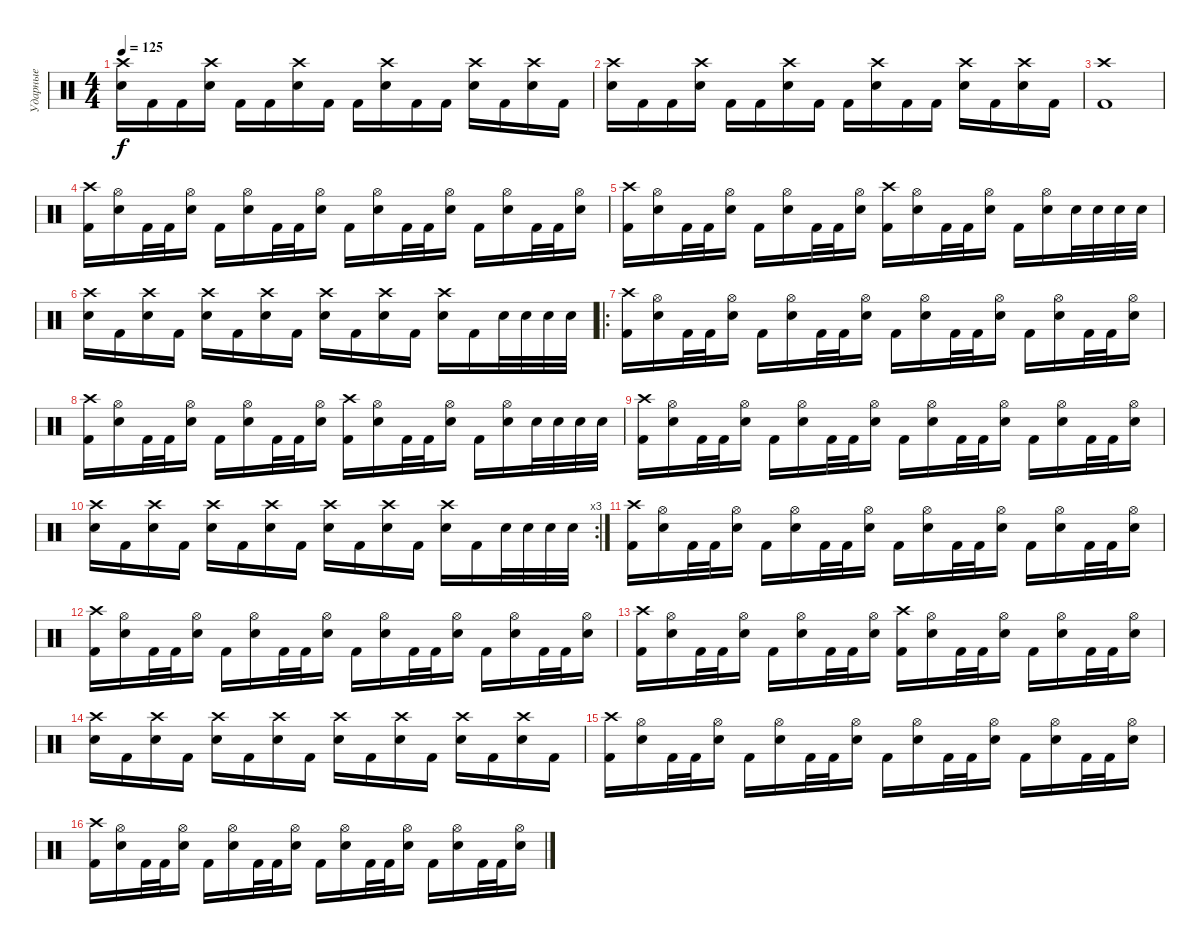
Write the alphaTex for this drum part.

\track ("Ударные" "Ударные") {instrument percussion}
\staff {score}
\articulation defaults
\ts (4 4)
\tempo 125
\clef neutral
\ks c
("Electric Snare (hit)" "Crash high (hit)").16{dy f} "Kick (hit) 2".16 "Kick (hit) 2".16 ("Electric Snare (hit)" "Crash high (hit)").16 "Kick (hit) 2".16 "Kick (hit) 2".16 ("Electric Snare (hit)" "Crash high (hit)").16 "Kick (hit) 2".16 "Kick (hit) 2".16 ("Electric Snare (hit)" "Crash high (hit)").16 "Kick (hit) 2".16 "Kick (hit) 2".16 ("Electric Snare (hit)" "Crash high (hit)").16 "Kick (hit) 2".16 ("Electric Snare (hit)" "Crash high (hit)").16 "Kick (hit) 2".16 |
("Electric Snare (hit)" "Crash high (hit)").16 "Kick (hit) 2".16 "Kick (hit) 2".16 ("Electric Snare (hit)" "Crash high (hit)").16 "Kick (hit) 2".16 "Kick (hit) 2".16 ("Electric Snare (hit)" "Crash high (hit)").16 "Kick (hit) 2".16 "Kick (hit) 2".16 ("Electric Snare (hit)" "Crash high (hit)").16 "Kick (hit) 2".16 "Kick (hit) 2".16 ("Electric Snare (hit)" "Crash high (hit)").16 "Kick (hit) 2".16 ("Electric Snare (hit)" "Crash high (hit)").16 "Kick (hit) 2".16 |
("Kick (hit) 2" "Crash high (hit)").1 |
("Kick (hit) 2" "Crash high (hit)").16 ("Electric Snare (hit)" "Hi-Hat (open)").16 "Kick (hit) 2".32 "Kick (hit) 2".32 ("Electric Snare (hit)" "Hi-Hat (open)").16 "Kick (hit) 2".16 ("Electric Snare (hit)" "Hi-Hat (open)").16 "Kick (hit) 2".32 "Kick (hit) 2".32 ("Electric Snare (hit)" "Hi-Hat (open)").16 "Kick (hit) 2".16 ("Electric Snare (hit)" "Hi-Hat (open)").16 "Kick (hit) 2".32 "Kick (hit) 2".32 ("Electric Snare (hit)" "Hi-Hat (open)").16 "Kick (hit) 2".16 ("Electric Snare (hit)" "Hi-Hat (open)").16 "Kick (hit) 2".32 "Kick (hit) 2".32 ("Electric Snare (hit)" "Hi-Hat (open)").16 |
("Kick (hit) 2" "Crash high (hit)").16 ("Electric Snare (hit)" "Hi-Hat (open)").16 "Kick (hit) 2".32 "Kick (hit) 2".32 ("Electric Snare (hit)" "Hi-Hat (open)").16 "Kick (hit) 2".16 ("Electric Snare (hit)" "Hi-Hat (open)").16 "Kick (hit) 2".32 "Kick (hit) 2".32 ("Electric Snare (hit)" "Hi-Hat (open)").16 ("Kick (hit) 2" "Crash high (hit)").16 ("Electric Snare (hit)" "Hi-Hat (open)").16 "Kick (hit) 2".32 "Kick (hit) 2".32 ("Electric Snare (hit)" "Hi-Hat (open)").16 "Kick (hit) 2".16 ("Electric Snare (hit)" "Hi-Hat (open)").16 "Electric Snare (hit)".32 "Electric Snare (hit)".32 "Electric Snare (hit)".32 "Electric Snare (hit)".32 |
("Electric Snare (hit)" "Crash high (hit)").16 "Kick (hit) 2".16 ("Electric Snare (hit)" "Crash high (hit)").16 "Kick (hit) 2".16 ("Electric Snare (hit)" "Crash high (hit)").16 "Kick (hit) 2".16 ("Electric Snare (hit)" "Crash high (hit)").16 "Kick (hit) 2".16 ("Electric Snare (hit)" "Crash high (hit)").16 "Kick (hit) 2".16 ("Electric Snare (hit)" "Crash high (hit)").16 "Kick (hit) 2".16 ("Electric Snare (hit)" "Crash high (hit)").16 "Kick (hit) 2".16 "Electric Snare (hit)".32 "Electric Snare (hit)".32 "Electric Snare (hit)".32 "Electric Snare (hit)".32 |
\ro
("Kick (hit) 2" "Crash high (hit)").16 ("Electric Snare (hit)" "Hi-Hat (open)").16 "Kick (hit) 2".32 "Kick (hit) 2".32 ("Electric Snare (hit)" "Hi-Hat (open)").16 "Kick (hit) 2".16 ("Electric Snare (hit)" "Hi-Hat (open)").16 "Kick (hit) 2".32 "Kick (hit) 2".32 ("Electric Snare (hit)" "Hi-Hat (open)").16 "Kick (hit) 2".16 ("Electric Snare (hit)" "Hi-Hat (open)").16 "Kick (hit) 2".32 "Kick (hit) 2".32 ("Electric Snare (hit)" "Hi-Hat (open)").16 "Kick (hit) 2".16 ("Electric Snare (hit)" "Hi-Hat (open)").16 "Kick (hit) 2".32 "Kick (hit) 2".32 ("Electric Snare (hit)" "Hi-Hat (open)").16 |
("Kick (hit) 2" "Crash high (hit)").16 ("Electric Snare (hit)" "Hi-Hat (open)").16 "Kick (hit) 2".32 "Kick (hit) 2".32 ("Electric Snare (hit)" "Hi-Hat (open)").16 "Kick (hit) 2".16 ("Electric Snare (hit)" "Hi-Hat (open)").16 "Kick (hit) 2".32 "Kick (hit) 2".32 ("Electric Snare (hit)" "Hi-Hat (open)").16 ("Kick (hit) 2" "Crash high (hit)").16 ("Electric Snare (hit)" "Hi-Hat (open)").16 "Kick (hit) 2".32 "Kick (hit) 2".32 ("Electric Snare (hit)" "Hi-Hat (open)").16 "Kick (hit) 2".16 ("Electric Snare (hit)" "Hi-Hat (open)").16 "Electric Snare (hit)".32 "Electric Snare (hit)".32 "Electric Snare (hit)".32 "Electric Snare (hit)".32 |
("Kick (hit) 2" "Crash high (hit)").16 ("Electric Snare (hit)" "Hi-Hat (open)").16 "Kick (hit) 2".32 "Kick (hit) 2".32 ("Electric Snare (hit)" "Hi-Hat (open)").16 "Kick (hit) 2".16 ("Electric Snare (hit)" "Hi-Hat (open)").16 "Kick (hit) 2".32 "Kick (hit) 2".32 ("Electric Snare (hit)" "Hi-Hat (open)").16 "Kick (hit) 2".16 ("Electric Snare (hit)" "Hi-Hat (open)").16 "Kick (hit) 2".32 "Kick (hit) 2".32 ("Electric Snare (hit)" "Hi-Hat (open)").16 "Kick (hit) 2".16 ("Electric Snare (hit)" "Hi-Hat (open)").16 "Kick (hit) 2".32 "Kick (hit) 2".32 ("Electric Snare (hit)" "Hi-Hat (open)").16 |
\rc 3
("Electric Snare (hit)" "Crash high (hit)").16 "Kick (hit) 2".16 ("Electric Snare (hit)" "Crash high (hit)").16 "Kick (hit) 2".16 ("Electric Snare (hit)" "Crash high (hit)").16 "Kick (hit) 2".16 ("Electric Snare (hit)" "Crash high (hit)").16 "Kick (hit) 2".16 ("Electric Snare (hit)" "Crash high (hit)").16 "Kick (hit) 2".16 ("Electric Snare (hit)" "Crash high (hit)").16 "Kick (hit) 2".16 ("Electric Snare (hit)" "Crash high (hit)").16 "Kick (hit) 2".16 "Electric Snare (hit)".32 "Electric Snare (hit)".32 "Electric Snare (hit)".32 "Electric Snare (hit)".32 |
("Kick (hit) 2" "Crash high (hit)").16 ("Electric Snare (hit)" "Hi-Hat (open)").16 "Kick (hit) 2".32 "Kick (hit) 2".32 ("Electric Snare (hit)" "Hi-Hat (open)").16 "Kick (hit) 2".16 ("Electric Snare (hit)" "Hi-Hat (open)").16 "Kick (hit) 2".32 "Kick (hit) 2".32 ("Electric Snare (hit)" "Hi-Hat (open)").16 "Kick (hit) 2".16 ("Electric Snare (hit)" "Hi-Hat (open)").16 "Kick (hit) 2".32 "Kick (hit) 2".32 ("Electric Snare (hit)" "Hi-Hat (open)").16 "Kick (hit) 2".16 ("Electric Snare (hit)" "Hi-Hat (open)").16 "Kick (hit) 2".32 "Kick (hit) 2".32 ("Electric Snare (hit)" "Hi-Hat (open)").16 |
("Kick (hit) 2" "Crash high (hit)").16 ("Electric Snare (hit)" "Hi-Hat (open)").16 "Kick (hit) 2".32 "Kick (hit) 2".32 ("Electric Snare (hit)" "Hi-Hat (open)").16 "Kick (hit) 2".16 ("Electric Snare (hit)" "Hi-Hat (open)").16 "Kick (hit) 2".32 "Kick (hit) 2".32 ("Electric Snare (hit)" "Hi-Hat (open)").16 "Kick (hit) 2".16 ("Electric Snare (hit)" "Hi-Hat (open)").16 "Kick (hit) 2".32 "Kick (hit) 2".32 ("Electric Snare (hit)" "Hi-Hat (open)").16 "Kick (hit) 2".16 ("Electric Snare (hit)" "Hi-Hat (open)").16 "Kick (hit) 2".32 "Kick (hit) 2".32 ("Electric Snare (hit)" "Hi-Hat (open)").16 |
("Kick (hit) 2" "Crash high (hit)").16 ("Electric Snare (hit)" "Hi-Hat (open)").16 "Kick (hit) 2".32 "Kick (hit) 2".32 ("Electric Snare (hit)" "Hi-Hat (open)").16 "Kick (hit) 2".16 ("Electric Snare (hit)" "Hi-Hat (open)").16 "Kick (hit) 2".32 "Kick (hit) 2".32 ("Electric Snare (hit)" "Hi-Hat (open)").16 ("Kick (hit) 2" "Crash high (hit)").16 ("Electric Snare (hit)" "Hi-Hat (open)").16 "Kick (hit) 2".32 "Kick (hit) 2".32 ("Electric Snare (hit)" "Hi-Hat (open)").16 "Kick (hit) 2".16 ("Electric Snare (hit)" "Hi-Hat (open)").16 "Kick (hit) 2".32 "Kick (hit) 2".32 ("Electric Snare (hit)" "Hi-Hat (open)").16 |
("Electric Snare (hit)" "Crash high (hit)").16 "Kick (hit) 2".16 ("Electric Snare (hit)" "Crash high (hit)").16 "Kick (hit) 2".16 ("Electric Snare (hit)" "Crash high (hit)").16 "Kick (hit) 2".16 ("Electric Snare (hit)" "Crash high (hit)").16 "Kick (hit) 2".16 ("Electric Snare (hit)" "Crash high (hit)").16 "Kick (hit) 2".16 ("Electric Snare (hit)" "Crash high (hit)").16 "Kick (hit) 2".16 ("Electric Snare (hit)" "Crash high (hit)").16 "Kick (hit) 2".16 ("Electric Snare (hit)" "Crash high (hit)").16 "Kick (hit) 2".16 |
("Kick (hit) 2" "Crash high (hit)").16 ("Electric Snare (hit)" "Hi-Hat (open)").16 "Kick (hit) 2".32 "Kick (hit) 2".32 ("Electric Snare (hit)" "Hi-Hat (open)").16 "Kick (hit) 2".16 ("Electric Snare (hit)" "Hi-Hat (open)").16 "Kick (hit) 2".32 "Kick (hit) 2".32 ("Electric Snare (hit)" "Hi-Hat (open)").16 "Kick (hit) 2".16 ("Electric Snare (hit)" "Hi-Hat (open)").16 "Kick (hit) 2".32 "Kick (hit) 2".32 ("Electric Snare (hit)" "Hi-Hat (open)").16 "Kick (hit) 2".16 ("Electric Snare (hit)" "Hi-Hat (open)").16 "Kick (hit) 2".32 "Kick (hit) 2".32 ("Electric Snare (hit)" "Hi-Hat (open)").16 |
("Kick (hit) 2" "Crash high (hit)").16 ("Electric Snare (hit)" "Hi-Hat (open)").16 "Kick (hit) 2".32 "Kick (hit) 2".32 ("Electric Snare (hit)" "Hi-Hat (open)").16 "Kick (hit) 2".16 ("Electric Snare (hit)" "Hi-Hat (open)").16 "Kick (hit) 2".32 "Kick (hit) 2".32 ("Electric Snare (hit)" "Hi-Hat (open)").16 "Kick (hit) 2".16 ("Electric Snare (hit)" "Hi-Hat (open)").16 "Kick (hit) 2".32 "Kick (hit) 2".32 ("Electric Snare (hit)" "Hi-Hat (open)").16 "Kick (hit) 2".16 ("Electric Snare (hit)" "Hi-Hat (open)").16 "Kick (hit) 2".32 "Kick (hit) 2".32 ("Electric Snare (hit)" "Hi-Hat (open)").16
